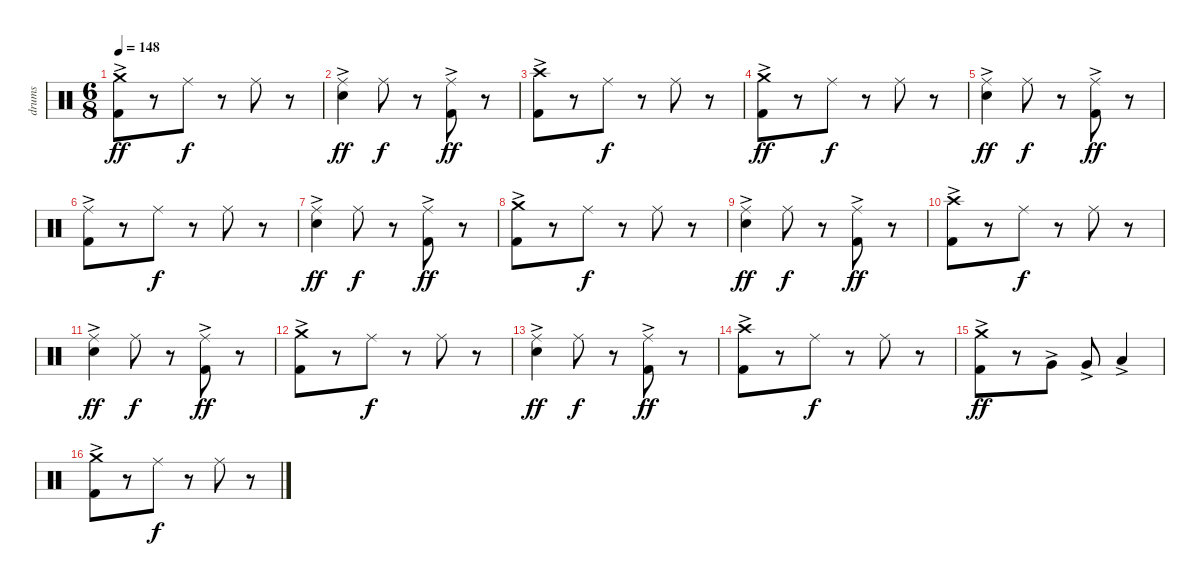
\track ("drums" "drums") {instrument percussion}
\staff {score}
\articulation defaults
\ts (6 8)
\tempo 148
\clef neutral
\ks c
("Crash medium (hit)" "Kick (hit) 2"{ac}).8{dy ff} r.8 "Ride (middle)".8{dy f} r.8 "Ride (middle)".8 r.8 |
("Ride (middle)" "Electric Snare (hit)"{ac}).4{dy ff} "Ride (middle)".8{dy f} r.8 ("Ride (middle)" "Kick (hit) 2"{ac}).8{dy ff} r.8 |
("Crash high (hit)" "Kick (hit) 2"{ac}).8 r.8 "Ride (middle)".8{dy f} r.8 "Ride (middle)".8 r.8 |
("Crash medium (hit)" "Kick (hit) 2"{ac}).8{dy ff} r.8 "Ride (middle)".8{dy f} r.8 "Ride (middle)".8 r.8 |
("Ride (middle)" "Electric Snare (hit)"{ac}).4{dy ff} "Ride (middle)".8{dy f} r.8 ("Ride (middle)" "Kick (hit) 2"{ac}).8{dy ff} r.8 |
("Ride (middle)" "Kick (hit) 2"{ac}).8 r.8 "Ride (middle)".8{dy f} r.8 "Ride (middle)".8 r.8 |
("Ride (middle)" "Electric Snare (hit)"{ac}).4{dy ff} "Ride (middle)".8{dy f} r.8 ("Ride (middle)" "Kick (hit) 2"{ac}).8{dy ff} r.8 |
("Crash medium (hit)" "Kick (hit) 2"{ac}).8 r.8 "Ride (middle)".8{dy f} r.8 "Ride (middle)".8 r.8 |
("Ride (middle)" "Electric Snare (hit)"{ac}).4{dy ff} "Ride (middle)".8{dy f} r.8 ("Ride (middle)" "Kick (hit) 2"{ac}).8{dy ff} r.8 |
("Crash high (hit)" "Kick (hit) 2"{ac}).8 r.8 "Ride (middle)".8{dy f} r.8 "Ride (middle)".8 r.8 |
("Ride (middle)" "Electric Snare (hit)"{ac}).4{dy ff} "Ride (middle)".8{dy f} r.8 ("Ride (middle)" "Kick (hit) 2"{ac}).8{dy ff} r.8 |
("Crash medium (hit)" "Kick (hit) 2"{ac}).8 r.8 "Ride (middle)".8{dy f} r.8 "Ride (middle)".8 r.8 |
("Ride (middle)" "Electric Snare (hit)"{ac}).4{dy ff} "Ride (middle)".8{dy f} r.8 ("Ride (middle)" "Kick (hit) 2"{ac}).8{dy ff} r.8 |
("Crash high (hit)" "Kick (hit) 2"{ac}).8 r.8 "Ride (middle)".8{dy f} r.8 "Ride (middle)".8 r.8 |
("Crash medium (hit)" "Kick (hit) 2"{ac}).8{dy ff} r.8 "Very Low Tom (hit)"{ac}.8 "Very Low Tom (hit)"{ac}.8 "Low Floor Tom (hit)"{ac}.4 |
("Crash medium (hit)" "Kick (hit) 2"{ac}).8 r.8 "Ride (middle)".8{dy f} r.8 "Ride (middle)".8 r.8
